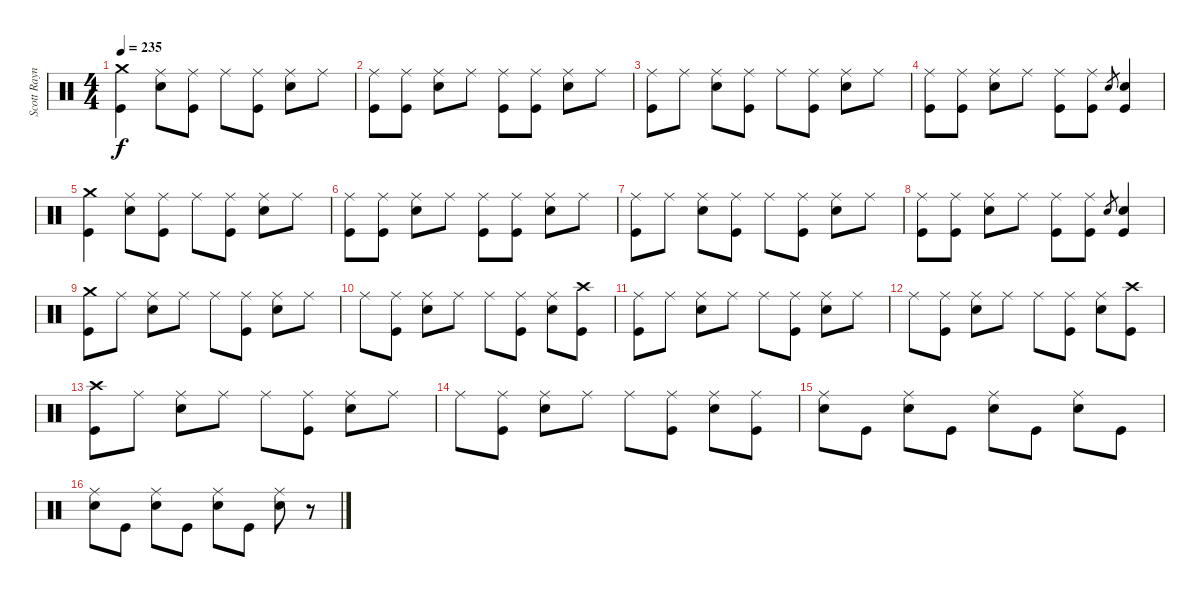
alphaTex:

\track ("Scott Raynor - Drums/Bateria" "Scott Rayn") {instrument percussion}
\staff {score}
\articulation defaults
\ts (4 4)
\tempo 235
\clef neutral
\ks c
("Crash medium (hit)" "Kick (hit)").4{dy f} ("Ride (middle)" "Electric Snare (hit)").8 ("Ride (middle)" "Kick (hit)").8 "Ride (middle)".8 ("Ride (middle)" "Kick (hit)").8 ("Ride (middle)" "Electric Snare (hit)").8 "Ride (middle)".8 |
("Ride (middle)" "Kick (hit)").8 ("Ride (middle)" "Kick (hit)").8 ("Ride (middle)" "Electric Snare (hit)").8 "Ride (middle)".8 ("Ride (middle)" "Kick (hit)").8 ("Ride (middle)" "Kick (hit)").8 ("Ride (middle)" "Electric Snare (hit)").8 "Ride (middle)".8 |
("Ride (middle)" "Kick (hit)").8 "Ride (middle)".8 ("Ride (middle)" "Electric Snare (hit)").8 ("Ride (middle)" "Kick (hit)").8 "Ride (middle)".8 ("Ride (middle)" "Kick (hit)").8 ("Ride (middle)" "Electric Snare (hit)").8 "Ride (middle)".8 |
("Ride (middle)" "Kick (hit)").8 ("Ride (middle)" "Kick (hit)").8 ("Ride (middle)" "Electric Snare (hit)").8 "Ride (middle)".8 ("Ride (middle)" "Kick (hit)").8 ("Ride (middle)" "Kick (hit)").8 "Electric Snare (hit)".8{gr} ("Electric Snare (hit)" "Kick (hit)").4 |
("Crash medium (hit)" "Kick (hit)").4 ("Ride (middle)" "Electric Snare (hit)").8 ("Ride (middle)" "Kick (hit)").8 "Ride (middle)".8 ("Ride (middle)" "Kick (hit)").8 ("Ride (middle)" "Electric Snare (hit)").8 "Ride (middle)".8 |
("Ride (middle)" "Kick (hit)").8 ("Ride (middle)" "Kick (hit)").8 ("Ride (middle)" "Electric Snare (hit)").8 "Ride (middle)".8 ("Ride (middle)" "Kick (hit)").8 ("Ride (middle)" "Kick (hit)").8 ("Ride (middle)" "Electric Snare (hit)").8 "Ride (middle)".8 |
("Ride (middle)" "Kick (hit)").8 "Ride (middle)".8 ("Ride (middle)" "Electric Snare (hit)").8 ("Ride (middle)" "Kick (hit)").8 "Ride (middle)".8 ("Ride (middle)" "Kick (hit)").8 ("Ride (middle)" "Electric Snare (hit)").8 "Ride (middle)".8 |
("Ride (middle)" "Kick (hit)").8 ("Ride (middle)" "Kick (hit)").8 ("Ride (middle)" "Electric Snare (hit)").8 "Ride (middle)".8 ("Ride (middle)" "Kick (hit)").8 ("Ride (middle)" "Kick (hit)").8 "Electric Snare (hit)".8{gr} ("Electric Snare (hit)" "Kick (hit)").4 |
("Crash medium (hit)" "Kick (hit)").8 "Ride (middle)".8 ("Ride (middle)" "Electric Snare (hit)").8 "Ride (middle)".8 "Ride (middle)".8 ("Ride (middle)" "Kick (hit)").8 ("Ride (middle)" "Electric Snare (hit)").8 "Ride (middle)".8 |
"Ride (middle)".8 ("Ride (middle)" "Kick (hit)").8 ("Ride (middle)" "Electric Snare (hit)").8 "Ride (middle)".8 "Ride (middle)".8 ("Ride (middle)" "Kick (hit)").8 ("Ride (middle)" "Electric Snare (hit)").8 ("Crash high (hit)" "Kick (hit)").8 |
("Ride (middle)" "Kick (hit)").8 "Ride (middle)".8 ("Ride (middle)" "Electric Snare (hit)").8 "Ride (middle)".8 "Ride (middle)".8 ("Ride (middle)" "Kick (hit)").8 ("Ride (middle)" "Electric Snare (hit)").8 "Ride (middle)".8 |
"Ride (middle)".8 ("Ride (middle)" "Kick (hit)").8 ("Ride (middle)" "Electric Snare (hit)").8 "Ride (middle)".8 "Ride (middle)".8 ("Ride (middle)" "Kick (hit)").8 ("Ride (middle)" "Electric Snare (hit)").8 ("Crash high (hit)" "Kick (hit)").8 |
("Crash high (hit)" "Kick (hit)").8 "Ride (middle)".8 ("Ride (middle)" "Electric Snare (hit)").8 "Ride (middle)".8 "Ride (middle)".8 ("Ride (middle)" "Kick (hit)").8 ("Ride (middle)" "Electric Snare (hit)").8 "Ride (middle)".8 |
"Ride (middle)".8 ("Ride (middle)" "Kick (hit)").8 ("Ride (middle)" "Electric Snare (hit)").8 "Ride (middle)".8 "Ride (middle)".8 ("Ride (middle)" "Kick (hit)").8 ("Ride (middle)" "Electric Snare (hit)").8 ("Ride (middle)" "Kick (hit)").8 |
("Ride (middle)" "Electric Snare (hit)").8 "Kick (hit)".8 ("Ride (middle)" "Electric Snare (hit)").8 "Kick (hit)".8 ("Ride (middle)" "Electric Snare (hit)").8 "Kick (hit)".8 ("Ride (middle)" "Electric Snare (hit)").8 "Kick (hit)".8 |
("Ride (middle)" "Electric Snare (hit)").8 "Kick (hit)".8 ("Ride (middle)" "Electric Snare (hit)").8 "Kick (hit)".8 ("Ride (middle)" "Electric Snare (hit)").8 "Kick (hit)".8 ("Ride (middle)" "Electric Snare (hit)").8 r.8
